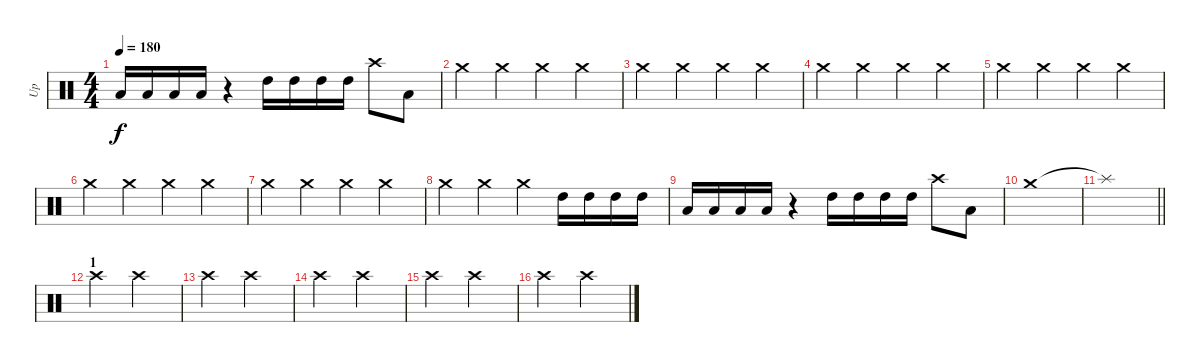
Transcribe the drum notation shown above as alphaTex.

\track ("Up" "Up") {instrument percussion}
\staff {score}
\articulation defaults
\ts (4 4)
\tempo 180
\clef neutral
\ks c "Low Tom (hit)".16{dy f} "Low Tom (hit)".16 "Low Tom (hit)".16 "Low Tom (hit)".16
r.4 "High Tom (hit)".16 "High Tom (hit)".16 "High Tom (hit)".16 "High Tom (hit)".16 "Crash high (hit)".8 "Low Tom (hit)".8 |
"Crash medium (hit)".4 "Crash medium (hit)".4 "Crash medium (hit)".4 "Crash medium (hit)".4 |
"Crash medium (hit)".4 "Crash medium (hit)".4 "Crash medium (hit)".4 "Crash medium (hit)".4 |
"Crash medium (hit)".4 "Crash medium (hit)".4 "Crash medium (hit)".4 "Crash medium (hit)".4 |
"Crash medium (hit)".4 "Crash medium (hit)".4 "Crash medium (hit)".4 "Crash medium (hit)".4 |
"Crash medium (hit)".4 "Crash medium (hit)".4 "Crash medium (hit)".4 "Crash medium (hit)".4 |
"Crash medium (hit)".4 "Crash medium (hit)".4 "Crash medium (hit)".4 "Crash medium (hit)".4 |
"Crash medium (hit)".4 "Crash medium (hit)".4 "Crash medium (hit)".4 "High Tom (hit)".16 "High Tom (hit)".16 "High Tom (hit)".16 "High Tom (hit)".16 |
"Low Tom (hit)".16 "Low Tom (hit)".16 "Low Tom (hit)".16 "Low Tom (hit)".16 r.4 "High Tom (hit)".16 "High Tom (hit)".16 "High Tom (hit)".16 "High Tom (hit)".16 "Crash high (hit)".8 "Low Tom (hit)".8 |
"Crash medium (hit)".1 |
\barLineRight lightlight "Splash (hit)"{t}.1
|
\section ("" "1")
"Crash high (hit)".2 "Crash high (hit)".2 |
"Crash high (hit)".2 "Crash high (hit)".2 |
"Crash high (hit)".2 "Crash high (hit)".2 |
"Crash high (hit)".2 "Crash high (hit)".2 |
"Crash high (hit)".2 "Crash high (hit)".2
